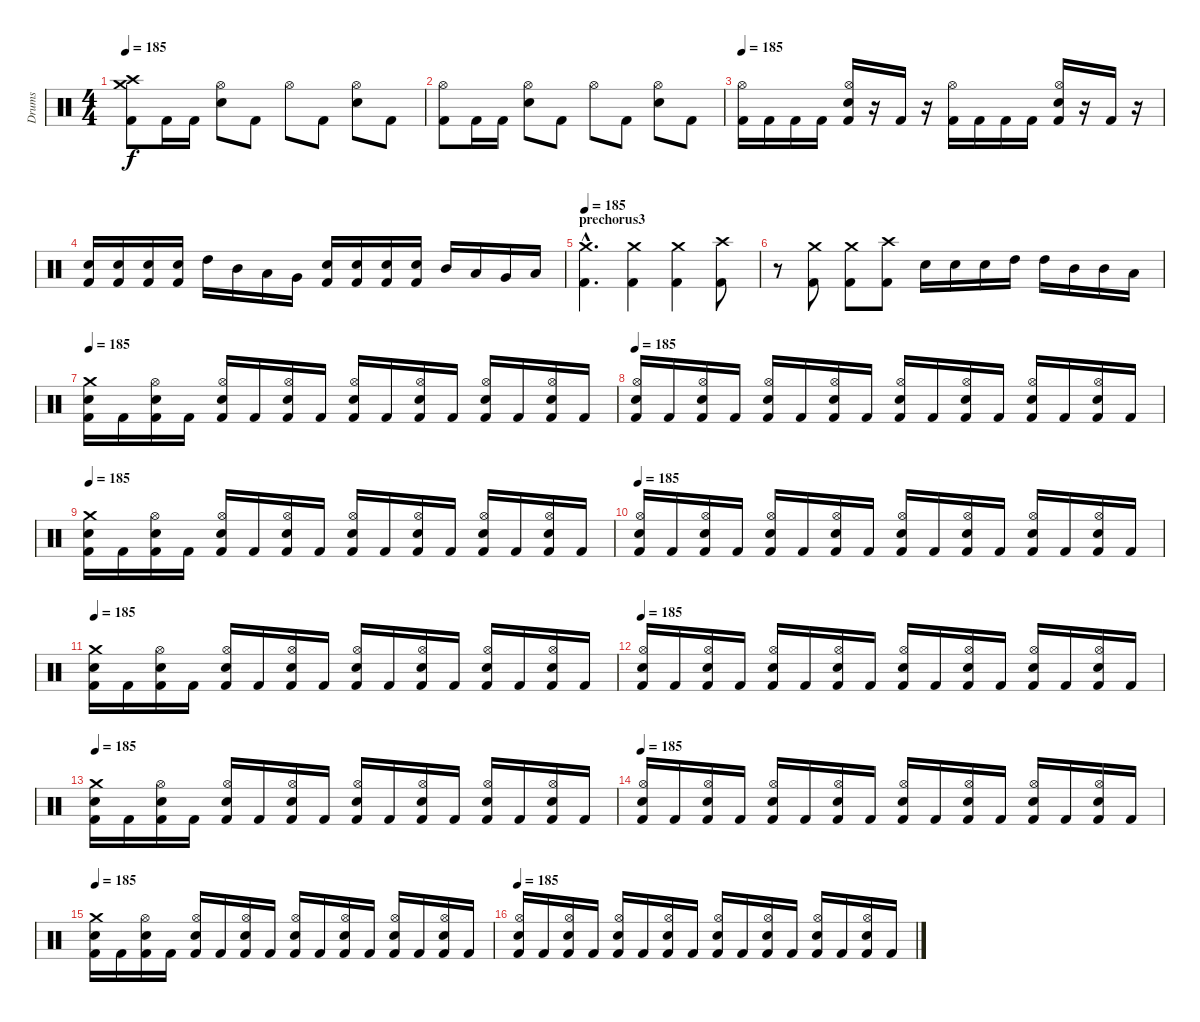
\track ("Drums" "Drums") {instrument percussion}
\staff {score}
\articulation defaults
\ts (4 4)
\tempo 185
\clef neutral
\ks c
("Crash medium (hit)" "Crash high (hit)" "Kick (hit) 2").8{dy f} "Kick (hit) 2".16 "Kick (hit) 2".16 ("Hi-Hat (open)" "Electric Snare (hit)").8 "Kick (hit) 2".8 "Hi-Hat (open)".8 "Kick (hit) 2".8 ("Hi-Hat (open)" "Electric Snare (hit)").8 "Kick (hit) 2".8 |
("Hi-Hat (open)" "Kick (hit) 2").8 "Kick (hit) 2".16 "Kick (hit) 2".16 ("Hi-Hat (open)" "Electric Snare (hit)").8 "Kick (hit) 2".8 "Hi-Hat (open)".8 "Kick (hit) 2".8 ("Hi-Hat (open)" "Electric Snare (hit)").8 "Kick (hit) 2".8 |
\tempo 185
("Hi-Hat (open)" "Kick (hit) 2").16 "Kick (hit) 2".16 "Kick (hit) 2".16 "Kick (hit) 2".16 ("Hi-Hat (open)" "Electric Snare (hit)" "Kick (hit) 2").16 r.16 "Kick (hit) 2".16 r.16 ("Hi-Hat (open)" "Kick (hit) 2").16 "Kick (hit) 2".16 "Kick (hit) 2".16 "Kick (hit) 2".16 ("Hi-Hat (open)" "Electric Snare (hit)" "Kick (hit) 2").16 r.16 "Kick (hit) 2".16 r.16 |
("Electric Snare (hit)" "Kick (hit) 2").16 ("Electric Snare (hit)" "Kick (hit) 2").16 ("Electric Snare (hit)" "Kick (hit) 2").16 ("Electric Snare (hit)" "Kick (hit) 2").16 "High Tom (hit)".16 "Mid Tom (hit)".16 "Low Tom (hit)".16 "Very Low Tom (hit)".16 ("Electric Snare (hit)" "Kick (hit) 2").16 ("Electric Snare (hit)" "Kick (hit) 2").16 ("Electric Snare (hit)" "Kick (hit) 2").16 ("Electric Snare (hit)" "Kick (hit) 2").16 "Mid Tom (hit)".16 "Low Tom (hit)".16 "Very Low Tom (hit)".16 "Low Floor Tom (hit)".16 |
\section ("" "prechorus3")
\tempo 185
("Crash medium (hit)"{hac} "Kick (hit) 2"{hac}).4{d} ("Crash medium (hit)" "Kick (hit) 2").4 ("Crash medium (hit)" "Kick (hit) 2").4 ("Crash high (hit)" "Kick (hit) 2").8 |
r.8 ("Crash medium (hit)" "Kick (hit) 2").8 ("Crash medium (hit)" "Kick (hit) 2").8 ("Crash high (hit)" "Kick (hit) 2").8 "Electric Snare (hit)".16 "Electric Snare (hit)".16 "Electric Snare (hit)".16 "High Tom (hit)".16 "High Tom (hit)".16 "Mid Tom (hit)".16 "Mid Tom (hit)".16 "Low Tom (hit)".16 |
\tempo 185
("Crash medium (hit)" "Electric Snare (hit)" "Kick (hit) 2").16 "Kick (hit) 2".16 ("Hi-Hat (open)" "Electric Snare (hit)" "Kick (hit) 2").16 "Kick (hit) 2".16 ("Hi-Hat (open)" "Electric Snare (hit)" "Kick (hit) 2").16 "Kick (hit) 2".16 ("Hi-Hat (open)" "Electric Snare (hit)" "Kick (hit) 2").16 "Kick (hit) 2".16 ("Hi-Hat (open)" "Electric Snare (hit)" "Kick (hit) 2").16 "Kick (hit) 2".16 ("Hi-Hat (open)" "Electric Snare (hit)" "Kick (hit) 2").16 "Kick (hit) 2".16 ("Hi-Hat (open)" "Electric Snare (hit)" "Kick (hit) 2").16 "Kick (hit) 2".16 ("Hi-Hat (open)" "Electric Snare (hit)" "Kick (hit) 2").16 "Kick (hit) 2".16 |
\tempo 185
("Hi-Hat (open)" "Electric Snare (hit)" "Kick (hit) 2").16 "Kick (hit) 2".16 ("Hi-Hat (open)" "Electric Snare (hit)" "Kick (hit) 2").16 "Kick (hit) 2".16 ("Hi-Hat (open)" "Electric Snare (hit)" "Kick (hit) 2").16 "Kick (hit) 2".16 ("Hi-Hat (open)" "Electric Snare (hit)" "Kick (hit) 2").16 "Kick (hit) 2".16 ("Hi-Hat (open)" "Electric Snare (hit)" "Kick (hit) 2").16 "Kick (hit) 2".16 ("Hi-Hat (open)" "Electric Snare (hit)" "Kick (hit) 2").16 "Kick (hit) 2".16 ("Hi-Hat (open)" "Electric Snare (hit)" "Kick (hit) 2").16 "Kick (hit) 2".16 ("Hi-Hat (open)" "Electric Snare (hit)" "Kick (hit) 2").16 "Kick (hit) 2".16 |
\tempo 185
("Crash medium (hit)" "Electric Snare (hit)" "Kick (hit) 2").16 "Kick (hit) 2".16 ("Hi-Hat (open)" "Electric Snare (hit)" "Kick (hit) 2").16 "Kick (hit) 2".16 ("Hi-Hat (open)" "Electric Snare (hit)" "Kick (hit) 2").16 "Kick (hit) 2".16 ("Hi-Hat (open)" "Electric Snare (hit)" "Kick (hit) 2").16 "Kick (hit) 2".16 ("Hi-Hat (open)" "Electric Snare (hit)" "Kick (hit) 2").16 "Kick (hit) 2".16 ("Hi-Hat (open)" "Electric Snare (hit)" "Kick (hit) 2").16 "Kick (hit) 2".16 ("Hi-Hat (open)" "Electric Snare (hit)" "Kick (hit) 2").16 "Kick (hit) 2".16 ("Hi-Hat (open)" "Electric Snare (hit)" "Kick (hit) 2").16 "Kick (hit) 2".16 |
\tempo 185
("Hi-Hat (open)" "Electric Snare (hit)" "Kick (hit) 2").16 "Kick (hit) 2".16 ("Hi-Hat (open)" "Electric Snare (hit)" "Kick (hit) 2").16 "Kick (hit) 2".16 ("Hi-Hat (open)" "Electric Snare (hit)" "Kick (hit) 2").16 "Kick (hit) 2".16 ("Hi-Hat (open)" "Electric Snare (hit)" "Kick (hit) 2").16 "Kick (hit) 2".16 ("Hi-Hat (open)" "Electric Snare (hit)" "Kick (hit) 2").16 "Kick (hit) 2".16 ("Hi-Hat (open)" "Electric Snare (hit)" "Kick (hit) 2").16 "Kick (hit) 2".16 ("Hi-Hat (open)" "Electric Snare (hit)" "Kick (hit) 2").16 "Kick (hit) 2".16 ("Hi-Hat (open)" "Electric Snare (hit)" "Kick (hit) 2").16 "Kick (hit) 2".16 |
\tempo 185
("Crash medium (hit)" "Electric Snare (hit)" "Kick (hit) 2").16 "Kick (hit) 2".16 ("Hi-Hat (open)" "Electric Snare (hit)" "Kick (hit) 2").16 "Kick (hit) 2".16 ("Hi-Hat (open)" "Electric Snare (hit)" "Kick (hit) 2").16 "Kick (hit) 2".16 ("Hi-Hat (open)" "Electric Snare (hit)" "Kick (hit) 2").16 "Kick (hit) 2".16 ("Hi-Hat (open)" "Electric Snare (hit)" "Kick (hit) 2").16 "Kick (hit) 2".16 ("Hi-Hat (open)" "Electric Snare (hit)" "Kick (hit) 2").16 "Kick (hit) 2".16 ("Hi-Hat (open)" "Electric Snare (hit)" "Kick (hit) 2").16 "Kick (hit) 2".16 ("Hi-Hat (open)" "Electric Snare (hit)" "Kick (hit) 2").16 "Kick (hit) 2".16 |
\tempo 185
("Hi-Hat (open)" "Electric Snare (hit)" "Kick (hit) 2").16 "Kick (hit) 2".16 ("Hi-Hat (open)" "Electric Snare (hit)" "Kick (hit) 2").16 "Kick (hit) 2".16 ("Hi-Hat (open)" "Electric Snare (hit)" "Kick (hit) 2").16 "Kick (hit) 2".16 ("Hi-Hat (open)" "Electric Snare (hit)" "Kick (hit) 2").16 "Kick (hit) 2".16 ("Hi-Hat (open)" "Electric Snare (hit)" "Kick (hit) 2").16 "Kick (hit) 2".16 ("Hi-Hat (open)" "Electric Snare (hit)" "Kick (hit) 2").16 "Kick (hit) 2".16 ("Hi-Hat (open)" "Electric Snare (hit)" "Kick (hit) 2").16 "Kick (hit) 2".16 ("Hi-Hat (open)" "Electric Snare (hit)" "Kick (hit) 2").16 "Kick (hit) 2".16 |
\tempo 185
("Crash medium (hit)" "Electric Snare (hit)" "Kick (hit) 2").16 "Kick (hit) 2".16 ("Hi-Hat (open)" "Electric Snare (hit)" "Kick (hit) 2").16 "Kick (hit) 2".16 ("Hi-Hat (open)" "Electric Snare (hit)" "Kick (hit) 2").16 "Kick (hit) 2".16 ("Hi-Hat (open)" "Electric Snare (hit)" "Kick (hit) 2").16 "Kick (hit) 2".16 ("Hi-Hat (open)" "Electric Snare (hit)" "Kick (hit) 2").16 "Kick (hit) 2".16 ("Hi-Hat (open)" "Electric Snare (hit)" "Kick (hit) 2").16 "Kick (hit) 2".16 ("Hi-Hat (open)" "Electric Snare (hit)" "Kick (hit) 2").16 "Kick (hit) 2".16 ("Hi-Hat (open)" "Electric Snare (hit)" "Kick (hit) 2").16 "Kick (hit) 2".16 |
\tempo 185
("Hi-Hat (open)" "Electric Snare (hit)" "Kick (hit) 2").16 "Kick (hit) 2".16 ("Hi-Hat (open)" "Electric Snare (hit)" "Kick (hit) 2").16 "Kick (hit) 2".16 ("Hi-Hat (open)" "Electric Snare (hit)" "Kick (hit) 2").16 "Kick (hit) 2".16 ("Hi-Hat (open)" "Electric Snare (hit)" "Kick (hit) 2").16 "Kick (hit) 2".16 ("Hi-Hat (open)" "Electric Snare (hit)" "Kick (hit) 2").16 "Kick (hit) 2".16 ("Hi-Hat (open)" "Electric Snare (hit)" "Kick (hit) 2").16 "Kick (hit) 2".16 ("Hi-Hat (open)" "Electric Snare (hit)" "Kick (hit) 2").16 "Kick (hit) 2".16 ("Hi-Hat (open)" "Electric Snare (hit)" "Kick (hit) 2").16 "Kick (hit) 2".16 |
\tempo 185
("Crash medium (hit)" "Electric Snare (hit)" "Kick (hit) 2").16 "Kick (hit) 2".16 ("Hi-Hat (open)" "Electric Snare (hit)" "Kick (hit) 2").16 "Kick (hit) 2".16 ("Hi-Hat (open)" "Electric Snare (hit)" "Kick (hit) 2").16 "Kick (hit) 2".16 ("Hi-Hat (open)" "Electric Snare (hit)" "Kick (hit) 2").16 "Kick (hit) 2".16 ("Hi-Hat (open)" "Electric Snare (hit)" "Kick (hit) 2").16 "Kick (hit) 2".16 ("Hi-Hat (open)" "Electric Snare (hit)" "Kick (hit) 2").16 "Kick (hit) 2".16 ("Hi-Hat (open)" "Electric Snare (hit)" "Kick (hit) 2").16 "Kick (hit) 2".16 ("Hi-Hat (open)" "Electric Snare (hit)" "Kick (hit) 2").16 "Kick (hit) 2".16 |
\tempo 185
("Hi-Hat (open)" "Electric Snare (hit)" "Kick (hit) 2").16 "Kick (hit) 2".16 ("Hi-Hat (open)" "Electric Snare (hit)" "Kick (hit) 2").16 "Kick (hit) 2".16 ("Hi-Hat (open)" "Electric Snare (hit)" "Kick (hit) 2").16 "Kick (hit) 2".16 ("Hi-Hat (open)" "Electric Snare (hit)" "Kick (hit) 2").16 "Kick (hit) 2".16 ("Hi-Hat (open)" "Electric Snare (hit)" "Kick (hit) 2").16 "Kick (hit) 2".16 ("Hi-Hat (open)" "Electric Snare (hit)" "Kick (hit) 2").16 "Kick (hit) 2".16 ("Hi-Hat (open)" "Electric Snare (hit)" "Kick (hit) 2").16 "Kick (hit) 2".16 ("Hi-Hat (open)" "Electric Snare (hit)" "Kick (hit) 2").16 "Kick (hit) 2".16
